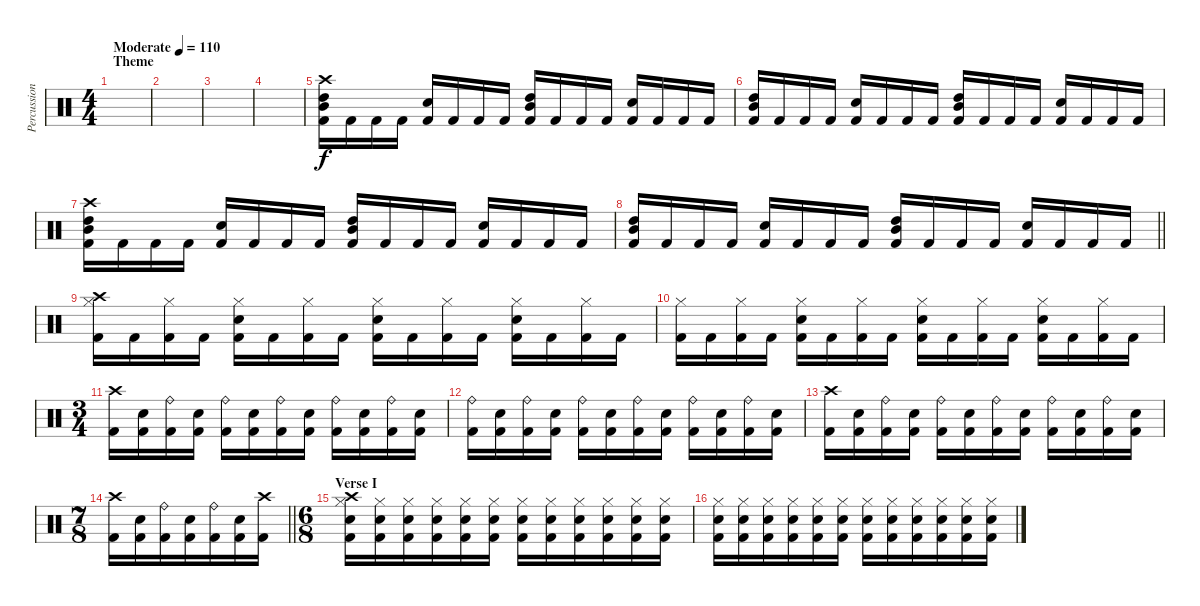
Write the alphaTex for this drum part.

\track ("Percussion" "Percussion") {instrument percussion}
\staff {score}
\articulation defaults
\ts (4 4)
\section ("" "Theme")
\tempo (110 "Moderate")
\clef neutral
\ks c
|
|
|
|
("Crash high (hit)" "Mid Tom (hit)" "High Tom (hit)" "Kick (hit) 2").16 "Kick (hit) 2".16 "Kick (hit) 2".16 "Kick (hit) 2".16 ("Electric Snare (hit)" "Kick (hit) 2").16 "Kick (hit) 2".16 "Kick (hit) 2".16 "Kick (hit) 2".16 ("Mid Tom (hit)" "High Tom (hit)" "Kick (hit) 2").16 "Kick (hit) 2".16 "Kick (hit) 2".16 "Kick (hit) 2".16 ("Electric Snare (hit)" "Kick (hit) 2").16 "Kick (hit) 2".16 "Kick (hit) 2".16 "Kick (hit) 2".16 |
("Mid Tom (hit)" "High Tom (hit)" "Kick (hit) 2").16 "Kick (hit) 2".16 "Kick (hit) 2".16 "Kick (hit) 2".16 ("Electric Snare (hit)" "Kick (hit) 2").16 "Kick (hit) 2".16 "Kick (hit) 2".16 "Kick (hit) 2".16 ("Mid Tom (hit)" "High Tom (hit)" "Kick (hit) 2").16 "Kick (hit) 2".16 "Kick (hit) 2".16 "Kick (hit) 2".16 ("Electric Snare (hit)" "Kick (hit) 2").16 "Kick (hit) 2".16 "Kick (hit) 2".16 "Kick (hit) 2".16 |
("Crash high (hit)" "Mid Tom (hit)" "High Tom (hit)" "Kick (hit) 2").16 "Kick (hit) 2".16 "Kick (hit) 2".16 "Kick (hit) 2".16 ("Electric Snare (hit)" "Kick (hit) 2").16 "Kick (hit) 2".16 "Kick (hit) 2".16 "Kick (hit) 2".16 ("Mid Tom (hit)" "High Tom (hit)" "Kick (hit) 2").16 "Kick (hit) 2".16 "Kick (hit) 2".16 "Kick (hit) 2".16 ("Electric Snare (hit)" "Kick (hit) 2").16 "Kick (hit) 2".16 "Kick (hit) 2".16 "Kick (hit) 2".16 |
\barLineRight lightlight
("Mid Tom (hit)" "High Tom (hit)" "Kick (hit) 2").16 "Kick (hit) 2".16 "Kick (hit) 2".16 "Kick (hit) 2".16 ("Electric Snare (hit)" "Kick (hit) 2").16 "Kick (hit) 2".16 "Kick (hit) 2".16 "Kick (hit) 2".16 ("Mid Tom (hit)" "High Tom (hit)" "Kick (hit) 2").16 "Kick (hit) 2".16 "Kick (hit) 2".16 "Kick (hit) 2".16 ("Electric Snare (hit)" "Kick (hit) 2").16 "Kick (hit) 2".16 "Kick (hit) 2".16 "Kick (hit) 2".16 |
("Crash high (hit)" "Hi-Hat (closed)" "Kick (hit) 2").16 "Kick (hit) 2".16 ("Hi-Hat (closed)" "Kick (hit) 2").16 "Kick (hit) 2".16 ("Hi-Hat (closed)" "Electric Snare (hit)" "Kick (hit) 2").16 "Kick (hit) 2".16 ("Hi-Hat (closed)" "Kick (hit) 2").16 "Kick (hit) 2".16 ("Hi-Hat (closed)" "Electric Snare (hit)" "Kick (hit) 2").16 "Kick (hit) 2".16 ("Hi-Hat (closed)" "Kick (hit) 2").16 "Kick (hit) 2".16 ("Hi-Hat (closed)" "Electric Snare (hit)" "Kick (hit) 2").16 "Kick (hit) 2".16 ("Hi-Hat (closed)" "Kick (hit) 2").16 "Kick (hit) 2".16 |
("Hi-Hat (closed)" "Kick (hit) 2").16 "Kick (hit) 2".16 ("Hi-Hat (closed)" "Kick (hit) 2").16 "Kick (hit) 2".16 ("Hi-Hat (closed)" "Electric Snare (hit)" "Kick (hit) 2").16 "Kick (hit) 2".16 ("Hi-Hat (closed)" "Kick (hit) 2").16 "Kick (hit) 2".16 ("Hi-Hat (closed)" "Electric Snare (hit)" "Kick (hit) 2").16 "Kick (hit) 2".16 ("Hi-Hat (closed)" "Kick (hit) 2").16 "Kick (hit) 2".16 ("Hi-Hat (closed)" "Electric Snare (hit)" "Kick (hit) 2").16 "Kick (hit) 2".16 ("Hi-Hat (closed)" "Kick (hit) 2").16 "Kick (hit) 2".16 |
\ts (3 4)
("Crash high (hit)" "Kick (hit) 2").16 ("Electric Snare (hit)" "Kick (hit) 2").16 ("Ride (bell)" "Kick (hit) 2").16 ("Electric Snare (hit)" "Kick (hit) 2").16 ("Ride (bell)" "Kick (hit) 2").16 ("Electric Snare (hit)" "Kick (hit) 2").16 ("Ride (bell)" "Kick (hit) 2").16 ("Electric Snare (hit)" "Kick (hit) 2").16 ("Ride (bell)" "Kick (hit) 2").16 ("Electric Snare (hit)" "Kick (hit) 2").16 ("Ride (bell)" "Kick (hit) 2").16 ("Electric Snare (hit)" "Kick (hit) 2").16 |
("Ride (bell)" "Kick (hit) 2").16 ("Electric Snare (hit)" "Kick (hit) 2").16 ("Ride (bell)" "Kick (hit) 2").16 ("Electric Snare (hit)" "Kick (hit) 2").16 ("Ride (bell)" "Kick (hit) 2").16 ("Electric Snare (hit)" "Kick (hit) 2").16 ("Ride (bell)" "Kick (hit) 2").16 ("Electric Snare (hit)" "Kick (hit) 2").16 ("Ride (bell)" "Kick (hit) 2").16 ("Electric Snare (hit)" "Kick (hit) 2").16 ("Ride (bell)" "Kick (hit) 2").16 ("Electric Snare (hit)" "Kick (hit) 2").16 |
("Crash high (hit)" "Kick (hit) 2").16 ("Electric Snare (hit)" "Kick (hit) 2").16 ("Ride (bell)" "Kick (hit) 2").16 ("Electric Snare (hit)" "Kick (hit) 2").16 ("Ride (bell)" "Kick (hit) 2").16 ("Electric Snare (hit)" "Kick (hit) 2").16 ("Ride (bell)" "Kick (hit) 2").16 ("Electric Snare (hit)" "Kick (hit) 2").16 ("Ride (bell)" "Kick (hit) 2").16 ("Electric Snare (hit)" "Kick (hit) 2").16 ("Ride (bell)" "Kick (hit) 2").16 ("Electric Snare (hit)" "Kick (hit) 2").16 |
\ts (7 8)
\barLineRight lightlight
("Crash high (hit)" "Kick (hit) 2").16 ("Electric Snare (hit)" "Kick (hit) 2").16 ("Ride (bell)" "Kick (hit) 2").16 ("Electric Snare (hit)" "Kick (hit) 2").16 ("Ride (bell)" "Kick (hit) 2").16 ("Electric Snare (hit)" "Kick (hit) 2").16 ("Crash high (hit)" "Kick (hit) 2").16 |
\ts (6 8)
\section ("" "Verse I")
("Crash high (hit)" "Hi-Hat (closed)" "Electric Snare (hit)" "Kick (hit) 2").16 ("Hi-Hat (closed)" "Electric Snare (hit)" "Kick (hit) 2").16 ("Hi-Hat (closed)" "Electric Snare (hit)" "Kick (hit) 2").16 ("Hi-Hat (closed)" "Electric Snare (hit)" "Kick (hit) 2").16 ("Hi-Hat (closed)" "Electric Snare (hit)" "Kick (hit) 2").16 ("Hi-Hat (closed)" "Electric Snare (hit)" "Kick (hit) 2").16 ("Hi-Hat (closed)" "Electric Snare (hit)" "Kick (hit) 2").16 ("Hi-Hat (closed)" "Electric Snare (hit)" "Kick (hit) 2").16 ("Hi-Hat (closed)" "Electric Snare (hit)" "Kick (hit) 2").16 ("Hi-Hat (closed)" "Electric Snare (hit)" "Kick (hit) 2").16 ("Hi-Hat (closed)" "Electric Snare (hit)" "Kick (hit) 2").16 ("Hi-Hat (closed)" "Electric Snare (hit)" "Kick (hit) 2").16 |
("Hi-Hat (closed)" "Electric Snare (hit)" "Kick (hit) 2").16 ("Hi-Hat (closed)" "Electric Snare (hit)" "Kick (hit) 2").16 ("Hi-Hat (closed)" "Electric Snare (hit)" "Kick (hit) 2").16 ("Hi-Hat (closed)" "Electric Snare (hit)" "Kick (hit) 2").16 ("Hi-Hat (closed)" "Electric Snare (hit)" "Kick (hit) 2").16 ("Hi-Hat (closed)" "Electric Snare (hit)" "Kick (hit) 2").16 ("Hi-Hat (closed)" "Electric Snare (hit)" "Kick (hit) 2").16 ("Hi-Hat (closed)" "Electric Snare (hit)" "Kick (hit) 2").16 ("Hi-Hat (closed)" "Electric Snare (hit)" "Kick (hit) 2").16 ("Hi-Hat (closed)" "Electric Snare (hit)" "Kick (hit) 2").16 ("Hi-Hat (closed)" "Electric Snare (hit)" "Kick (hit) 2").16 ("Hi-Hat (closed)" "Electric Snare (hit)" "Kick (hit) 2").16
